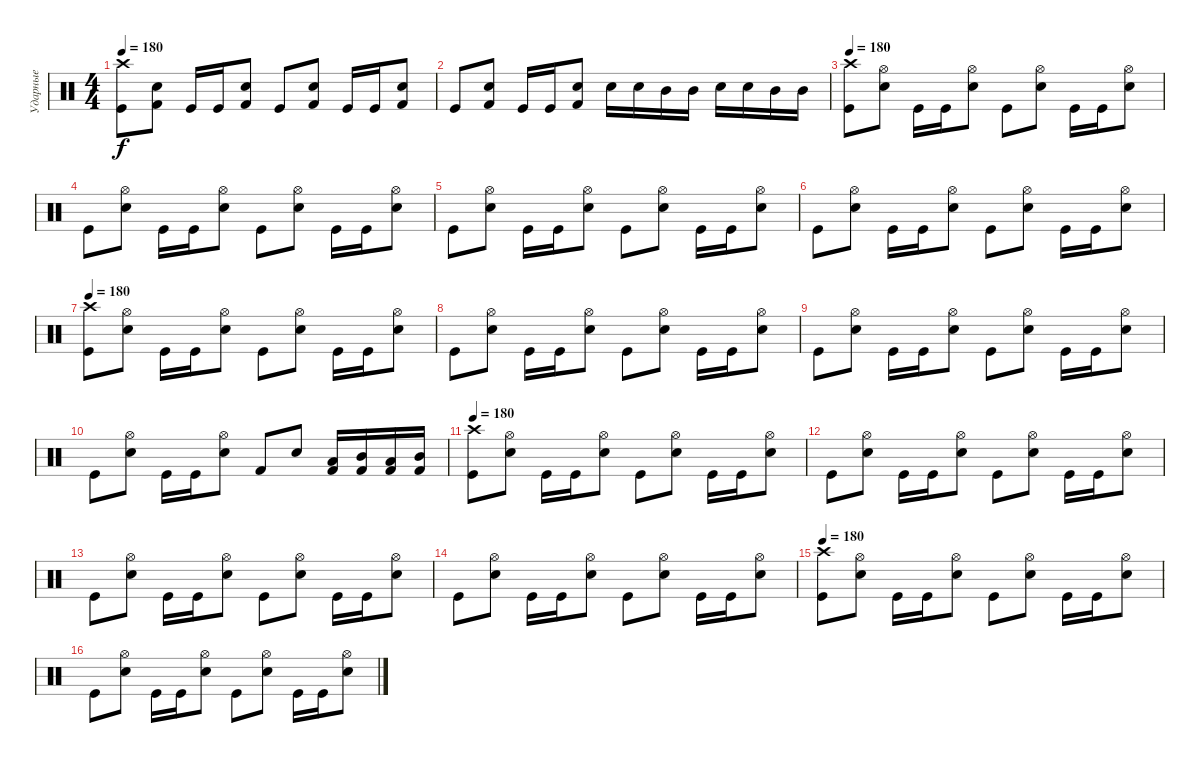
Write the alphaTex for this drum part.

\track ("Ударные" "Ударные") {instrument percussion}
\staff {score}
\articulation defaults
\ts (4 4)
\tempo 180
\clef neutral
\ks c
("Crash high (hit)" "Kick (hit)").8{dy f} ("Kick (hit) 2" "Electric Snare (hit)").8 "Kick (hit)".16 "Kick (hit)".16 ("Kick (hit) 2" "Electric Snare (hit)").8 "Kick (hit)".8 ("Kick (hit) 2" "Electric Snare (hit)").8 "Kick (hit)".16 "Kick (hit)".16 ("Kick (hit) 2" "Electric Snare (hit)").8 |
"Kick (hit)".8 ("Kick (hit) 2" "Electric Snare (hit)").8 "Kick (hit)".16 "Kick (hit)".16 ("Kick (hit) 2" "Electric Snare (hit)").8 "Electric Snare (hit)".16 "Electric Snare (hit)".16 "Mid Tom (hit)".16 "Mid Tom (hit)".16 "Electric Snare (hit)".16 "Electric Snare (hit)".16 "Mid Tom (hit)".16 "Mid Tom (hit)".16 |
\tempo 180
("Crash high (hit)" "Kick (hit)").8 ("Hi-Hat (open)" "Electric Snare (hit)").8 "Kick (hit)".16 "Kick (hit)".16 ("Hi-Hat (open)" "Electric Snare (hit)").8 "Kick (hit)".8 ("Hi-Hat (open)" "Electric Snare (hit)").8 "Kick (hit)".16 "Kick (hit)".16 ("Hi-Hat (open)" "Electric Snare (hit)").8 |
"Kick (hit)".8 ("Hi-Hat (open)" "Electric Snare (hit)").8 "Kick (hit)".16 "Kick (hit)".16 ("Hi-Hat (open)" "Electric Snare (hit)").8 "Kick (hit)".8 ("Hi-Hat (open)" "Electric Snare (hit)").8 "Kick (hit)".16 "Kick (hit)".16 ("Hi-Hat (open)" "Electric Snare (hit)").8 |
"Kick (hit)".8 ("Hi-Hat (open)" "Electric Snare (hit)").8 "Kick (hit)".16 "Kick (hit)".16 ("Hi-Hat (open)" "Electric Snare (hit)").8 "Kick (hit)".8 ("Hi-Hat (open)" "Electric Snare (hit)").8 "Kick (hit)".16 "Kick (hit)".16 ("Hi-Hat (open)" "Electric Snare (hit)").8 |
"Kick (hit)".8 ("Hi-Hat (open)" "Electric Snare (hit)").8 "Kick (hit)".16 "Kick (hit)".16 ("Hi-Hat (open)" "Electric Snare (hit)").8 "Kick (hit)".8 ("Hi-Hat (open)" "Electric Snare (hit)").8 "Kick (hit)".16 "Kick (hit)".16 ("Hi-Hat (open)" "Electric Snare (hit)").8 |
\tempo 180
("Crash high (hit)" "Kick (hit)").8 ("Hi-Hat (open)" "Electric Snare (hit)").8 "Kick (hit)".16 "Kick (hit)".16 ("Hi-Hat (open)" "Electric Snare (hit)").8 "Kick (hit)".8 ("Hi-Hat (open)" "Electric Snare (hit)").8 "Kick (hit)".16 "Kick (hit)".16 ("Hi-Hat (open)" "Electric Snare (hit)").8 |
"Kick (hit)".8 ("Hi-Hat (open)" "Electric Snare (hit)").8 "Kick (hit)".16 "Kick (hit)".16 ("Hi-Hat (open)" "Electric Snare (hit)").8 "Kick (hit)".8 ("Hi-Hat (open)" "Electric Snare (hit)").8 "Kick (hit)".16 "Kick (hit)".16 ("Hi-Hat (open)" "Electric Snare (hit)").8 |
"Kick (hit)".8 ("Hi-Hat (open)" "Electric Snare (hit)").8 "Kick (hit)".16 "Kick (hit)".16 ("Hi-Hat (open)" "Electric Snare (hit)").8 "Kick (hit)".8 ("Hi-Hat (open)" "Electric Snare (hit)").8 "Kick (hit)".16 "Kick (hit)".16 ("Hi-Hat (open)" "Electric Snare (hit)").8 |
"Kick (hit)".8 ("Hi-Hat (open)" "Electric Snare (hit)").8 "Kick (hit)".16 "Kick (hit)".16 ("Hi-Hat (open)" "Electric Snare (hit)").8 "Kick (hit) 2".8 "Electric Snare (hit)".8 ("Low Tom (hit)" "Kick (hit) 2").16 ("Mid Tom (hit)" "Kick (hit) 2").16 ("Low Tom (hit)" "Kick (hit) 2").16 ("Mid Tom (hit)" "Kick (hit) 2").16 |
\tempo 180
("Crash high (hit)" "Kick (hit)").8 ("Hi-Hat (open)" "Electric Snare (hit)").8 "Kick (hit)".16 "Kick (hit)".16 ("Hi-Hat (open)" "Electric Snare (hit)").8 "Kick (hit)".8 ("Hi-Hat (open)" "Electric Snare (hit)").8 "Kick (hit)".16 "Kick (hit)".16 ("Hi-Hat (open)" "Electric Snare (hit)").8 |
"Kick (hit)".8 ("Hi-Hat (open)" "Electric Snare (hit)").8 "Kick (hit)".16 "Kick (hit)".16 ("Hi-Hat (open)" "Electric Snare (hit)").8 "Kick (hit)".8 ("Hi-Hat (open)" "Electric Snare (hit)").8 "Kick (hit)".16 "Kick (hit)".16 ("Hi-Hat (open)" "Electric Snare (hit)").8 |
"Kick (hit)".8 ("Hi-Hat (open)" "Electric Snare (hit)").8 "Kick (hit)".16 "Kick (hit)".16 ("Hi-Hat (open)" "Electric Snare (hit)").8 "Kick (hit)".8 ("Hi-Hat (open)" "Electric Snare (hit)").8 "Kick (hit)".16 "Kick (hit)".16 ("Hi-Hat (open)" "Electric Snare (hit)").8 |
"Kick (hit)".8 ("Hi-Hat (open)" "Electric Snare (hit)").8 "Kick (hit)".16 "Kick (hit)".16 ("Hi-Hat (open)" "Electric Snare (hit)").8 "Kick (hit)".8 ("Hi-Hat (open)" "Electric Snare (hit)").8 "Kick (hit)".16 "Kick (hit)".16 ("Hi-Hat (open)" "Electric Snare (hit)").8 |
\tempo 180
("Crash high (hit)" "Kick (hit)").8 ("Hi-Hat (open)" "Electric Snare (hit)").8 "Kick (hit)".16 "Kick (hit)".16 ("Hi-Hat (open)" "Electric Snare (hit)").8 "Kick (hit)".8 ("Hi-Hat (open)" "Electric Snare (hit)").8 "Kick (hit)".16 "Kick (hit)".16 ("Hi-Hat (open)" "Electric Snare (hit)").8 |
"Kick (hit)".8 ("Hi-Hat (open)" "Electric Snare (hit)").8 "Kick (hit)".16 "Kick (hit)".16 ("Hi-Hat (open)" "Electric Snare (hit)").8 "Kick (hit)".8 ("Hi-Hat (open)" "Electric Snare (hit)").8 "Kick (hit)".16 "Kick (hit)".16 ("Hi-Hat (open)" "Electric Snare (hit)").8
